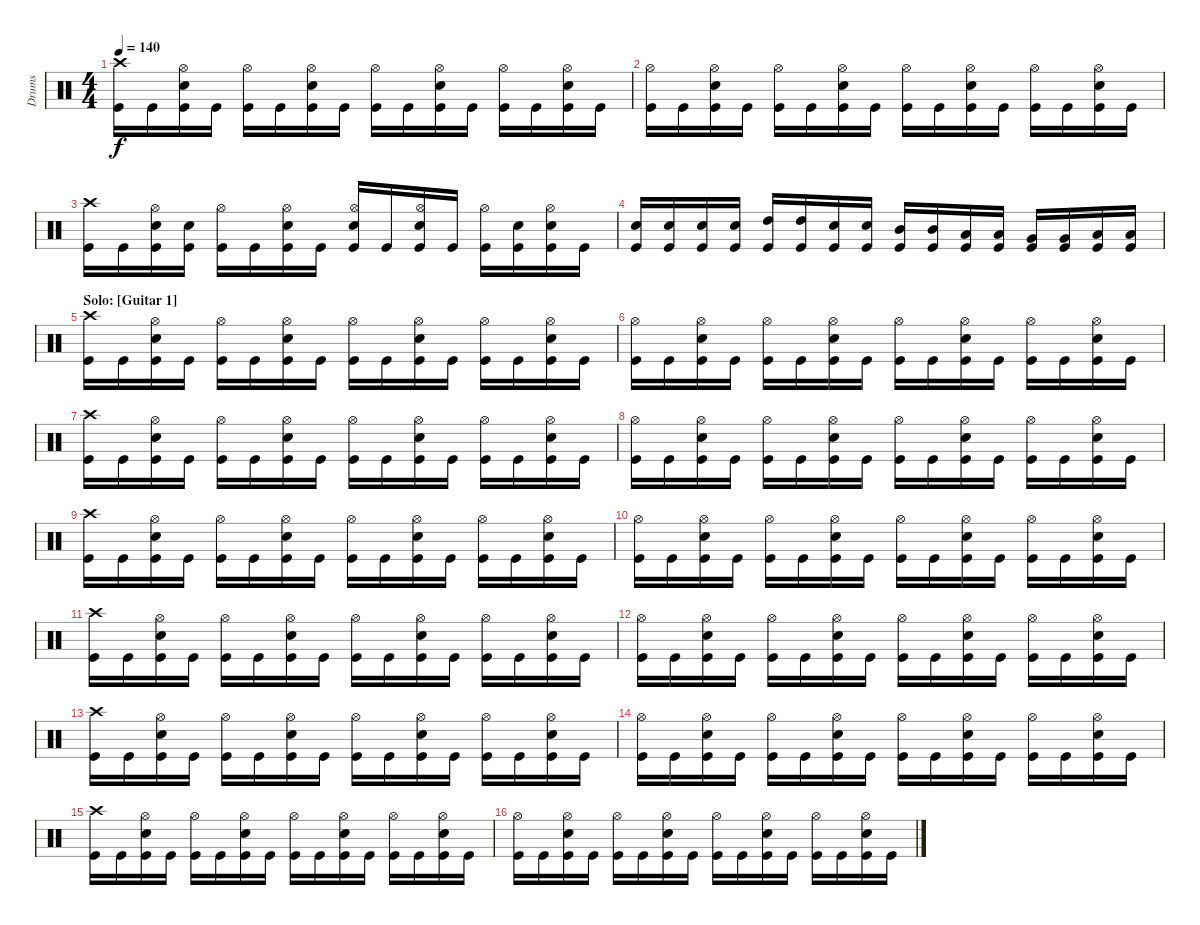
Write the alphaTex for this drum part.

\track ("Drums" "Drums") {instrument percussion}
\staff {score}
\articulation defaults
\ts (4 4)
\tempo 140
\clef neutral
\ks c
("Crash high (hit)" "Kick (hit)").16{dy f} "Kick (hit)".16 ("Hi-Hat (open)" "Electric Snare (hit)" "Kick (hit)").16 "Kick (hit)".16 ("Hi-Hat (open)" "Kick (hit)").16 "Kick (hit)".16 ("Hi-Hat (open)" "Electric Snare (hit)" "Kick (hit)").16 "Kick (hit)".16 ("Hi-Hat (open)" "Kick (hit)").16 "Kick (hit)".16 ("Hi-Hat (open)" "Electric Snare (hit)" "Kick (hit)").16 "Kick (hit)".16 ("Hi-Hat (open)" "Kick (hit)").16 "Kick (hit)".16 ("Hi-Hat (open)" "Electric Snare (hit)" "Kick (hit)").16 "Kick (hit)".16 |
("Hi-Hat (open)" "Kick (hit)").16 "Kick (hit)".16 ("Hi-Hat (open)" "Electric Snare (hit)" "Kick (hit)").16 "Kick (hit)".16 ("Hi-Hat (open)" "Kick (hit)").16 "Kick (hit)".16 ("Hi-Hat (open)" "Electric Snare (hit)" "Kick (hit)").16 "Kick (hit)".16 ("Hi-Hat (open)" "Kick (hit)").16 "Kick (hit)".16 ("Hi-Hat (open)" "Electric Snare (hit)" "Kick (hit)").16 "Kick (hit)".16 ("Hi-Hat (open)" "Kick (hit)").16 "Kick (hit)".16 ("Hi-Hat (open)" "Electric Snare (hit)" "Kick (hit)").16 "Kick (hit)".16 |
("Crash high (hit)" "Kick (hit)").16 "Kick (hit)".16 ("Hi-Hat (open)" "Electric Snare (hit)" "Kick (hit)").16 ("Electric Snare (hit)" "Kick (hit)").16 ("Hi-Hat (open)" "Kick (hit)").16 "Kick (hit)".16 ("Hi-Hat (open)" "Electric Snare (hit)" "Kick (hit)").16 "Kick (hit)".16 ("Hi-Hat (open)" "Electric Snare (hit)" "Kick (hit)").16 "Kick (hit)".16 ("Hi-Hat (open)" "Electric Snare (hit)" "Kick (hit)").16 "Kick (hit)".16 ("Hi-Hat (open)" "Kick (hit)").16 ("Electric Snare (hit)" "Kick (hit)").16 ("Hi-Hat (open)" "Electric Snare (hit)" "Kick (hit)").16 "Kick (hit)".16 |
("Electric Snare (hit)" "Kick (hit)").16 ("Electric Snare (hit)" "Kick (hit)").16 ("Electric Snare (hit)" "Kick (hit)").16 ("Electric Snare (hit)" "Kick (hit)").16 ("High Tom (hit)" "Kick (hit)").16 ("High Tom (hit)" "Kick (hit)").16 ("Electric Snare (hit)" "Kick (hit)").16 ("Electric Snare (hit)" "Kick (hit)").16 ("Mid Tom (hit)" "Kick (hit)").16 ("Mid Tom (hit)" "Kick (hit)").16 ("Low Tom (hit)" "Kick (hit)").16 ("Low Tom (hit)" "Kick (hit)").16 ("Very Low Tom (hit)" "Kick (hit)").16 ("Very Low Tom (hit)" "Kick (hit)").16 ("Low Floor Tom (hit)" "Kick (hit)").16 ("Low Floor Tom (hit)" "Kick (hit)").16 |
\section ("" "Solo: [Guitar 1]")
("Crash high (hit)" "Kick (hit)").16 "Kick (hit)".16 ("Hi-Hat (open)" "Electric Snare (hit)" "Kick (hit)").16 "Kick (hit)".16 ("Hi-Hat (open)" "Kick (hit)").16 "Kick (hit)".16 ("Hi-Hat (open)" "Electric Snare (hit)" "Kick (hit)").16 "Kick (hit)".16 ("Hi-Hat (open)" "Kick (hit)").16 "Kick (hit)".16 ("Hi-Hat (open)" "Electric Snare (hit)" "Kick (hit)").16 "Kick (hit)".16 ("Hi-Hat (open)" "Kick (hit)").16 "Kick (hit)".16 ("Hi-Hat (open)" "Electric Snare (hit)" "Kick (hit)").16 "Kick (hit)".16 |
("Hi-Hat (open)" "Kick (hit)").16 "Kick (hit)".16 ("Hi-Hat (open)" "Electric Snare (hit)" "Kick (hit)").16 "Kick (hit)".16 ("Hi-Hat (open)" "Kick (hit)").16 "Kick (hit)".16 ("Hi-Hat (open)" "Electric Snare (hit)" "Kick (hit)").16 "Kick (hit)".16 ("Hi-Hat (open)" "Kick (hit)").16 "Kick (hit)".16 ("Hi-Hat (open)" "Electric Snare (hit)" "Kick (hit)").16 "Kick (hit)".16 ("Hi-Hat (open)" "Kick (hit)").16 "Kick (hit)".16 ("Hi-Hat (open)" "Electric Snare (hit)" "Kick (hit)").16 "Kick (hit)".16 |
("Crash high (hit)" "Kick (hit)").16 "Kick (hit)".16 ("Hi-Hat (open)" "Electric Snare (hit)" "Kick (hit)").16 "Kick (hit)".16 ("Hi-Hat (open)" "Kick (hit)").16 "Kick (hit)".16 ("Hi-Hat (open)" "Electric Snare (hit)" "Kick (hit)").16 "Kick (hit)".16 ("Hi-Hat (open)" "Kick (hit)").16 "Kick (hit)".16 ("Hi-Hat (open)" "Electric Snare (hit)" "Kick (hit)").16 "Kick (hit)".16 ("Hi-Hat (open)" "Kick (hit)").16 "Kick (hit)".16 ("Hi-Hat (open)" "Electric Snare (hit)" "Kick (hit)").16 "Kick (hit)".16 |
("Hi-Hat (open)" "Kick (hit)").16 "Kick (hit)".16 ("Hi-Hat (open)" "Electric Snare (hit)" "Kick (hit)").16 "Kick (hit)".16 ("Hi-Hat (open)" "Kick (hit)").16 "Kick (hit)".16 ("Hi-Hat (open)" "Electric Snare (hit)" "Kick (hit)").16 "Kick (hit)".16 ("Hi-Hat (open)" "Kick (hit)").16 "Kick (hit)".16 ("Hi-Hat (open)" "Electric Snare (hit)" "Kick (hit)").16 "Kick (hit)".16 ("Hi-Hat (open)" "Kick (hit)").16 "Kick (hit)".16 ("Hi-Hat (open)" "Electric Snare (hit)" "Kick (hit)").16 "Kick (hit)".16 |
("Crash high (hit)" "Kick (hit)").16 "Kick (hit)".16 ("Hi-Hat (open)" "Electric Snare (hit)" "Kick (hit)").16 "Kick (hit)".16 ("Hi-Hat (open)" "Kick (hit)").16 "Kick (hit)".16 ("Hi-Hat (open)" "Electric Snare (hit)" "Kick (hit)").16 "Kick (hit)".16 ("Hi-Hat (open)" "Kick (hit)").16 "Kick (hit)".16 ("Hi-Hat (open)" "Electric Snare (hit)" "Kick (hit)").16 "Kick (hit)".16 ("Hi-Hat (open)" "Kick (hit)").16 "Kick (hit)".16 ("Hi-Hat (open)" "Electric Snare (hit)" "Kick (hit)").16 "Kick (hit)".16 |
("Hi-Hat (open)" "Kick (hit)").16 "Kick (hit)".16 ("Hi-Hat (open)" "Electric Snare (hit)" "Kick (hit)").16 "Kick (hit)".16 ("Hi-Hat (open)" "Kick (hit)").16 "Kick (hit)".16 ("Hi-Hat (open)" "Electric Snare (hit)" "Kick (hit)").16 "Kick (hit)".16 ("Hi-Hat (open)" "Kick (hit)").16 "Kick (hit)".16 ("Hi-Hat (open)" "Electric Snare (hit)" "Kick (hit)").16 "Kick (hit)".16 ("Hi-Hat (open)" "Kick (hit)").16 "Kick (hit)".16 ("Hi-Hat (open)" "Electric Snare (hit)" "Kick (hit)").16 "Kick (hit)".16 |
("Crash high (hit)" "Kick (hit)").16 "Kick (hit)".16 ("Hi-Hat (open)" "Electric Snare (hit)" "Kick (hit)").16 "Kick (hit)".16 ("Hi-Hat (open)" "Kick (hit)").16 "Kick (hit)".16 ("Hi-Hat (open)" "Electric Snare (hit)" "Kick (hit)").16 "Kick (hit)".16 ("Hi-Hat (open)" "Kick (hit)").16 "Kick (hit)".16 ("Hi-Hat (open)" "Electric Snare (hit)" "Kick (hit)").16 "Kick (hit)".16 ("Hi-Hat (open)" "Kick (hit)").16 "Kick (hit)".16 ("Hi-Hat (open)" "Electric Snare (hit)" "Kick (hit)").16 "Kick (hit)".16 |
("Hi-Hat (open)" "Kick (hit)").16 "Kick (hit)".16 ("Hi-Hat (open)" "Electric Snare (hit)" "Kick (hit)").16 "Kick (hit)".16 ("Hi-Hat (open)" "Kick (hit)").16 "Kick (hit)".16 ("Hi-Hat (open)" "Electric Snare (hit)" "Kick (hit)").16 "Kick (hit)".16 ("Hi-Hat (open)" "Kick (hit)").16 "Kick (hit)".16 ("Hi-Hat (open)" "Electric Snare (hit)" "Kick (hit)").16 "Kick (hit)".16 ("Hi-Hat (open)" "Kick (hit)").16 "Kick (hit)".16 ("Hi-Hat (open)" "Electric Snare (hit)" "Kick (hit)").16 "Kick (hit)".16 |
("Crash high (hit)" "Kick (hit)").16 "Kick (hit)".16 ("Hi-Hat (open)" "Electric Snare (hit)" "Kick (hit)").16 "Kick (hit)".16 ("Hi-Hat (open)" "Kick (hit)").16 "Kick (hit)".16 ("Hi-Hat (open)" "Electric Snare (hit)" "Kick (hit)").16 "Kick (hit)".16 ("Hi-Hat (open)" "Kick (hit)").16 "Kick (hit)".16 ("Hi-Hat (open)" "Electric Snare (hit)" "Kick (hit)").16 "Kick (hit)".16 ("Hi-Hat (open)" "Kick (hit)").16 "Kick (hit)".16 ("Hi-Hat (open)" "Electric Snare (hit)" "Kick (hit)").16 "Kick (hit)".16 |
("Hi-Hat (open)" "Kick (hit)").16 "Kick (hit)".16 ("Hi-Hat (open)" "Electric Snare (hit)" "Kick (hit)").16 "Kick (hit)".16 ("Hi-Hat (open)" "Kick (hit)").16 "Kick (hit)".16 ("Hi-Hat (open)" "Electric Snare (hit)" "Kick (hit)").16 "Kick (hit)".16 ("Hi-Hat (open)" "Kick (hit)").16 "Kick (hit)".16 ("Hi-Hat (open)" "Electric Snare (hit)" "Kick (hit)").16 "Kick (hit)".16 ("Hi-Hat (open)" "Kick (hit)").16 "Kick (hit)".16 ("Hi-Hat (open)" "Electric Snare (hit)" "Kick (hit)").16 "Kick (hit)".16 |
("Crash high (hit)" "Kick (hit)").16 "Kick (hit)".16 ("Hi-Hat (open)" "Electric Snare (hit)" "Kick (hit)").16 "Kick (hit)".16 ("Hi-Hat (open)" "Kick (hit)").16 "Kick (hit)".16 ("Hi-Hat (open)" "Electric Snare (hit)" "Kick (hit)").16 "Kick (hit)".16 ("Hi-Hat (open)" "Kick (hit)").16 "Kick (hit)".16 ("Hi-Hat (open)" "Electric Snare (hit)" "Kick (hit)").16 "Kick (hit)".16 ("Hi-Hat (open)" "Kick (hit)").16 "Kick (hit)".16 ("Hi-Hat (open)" "Electric Snare (hit)" "Kick (hit)").16 "Kick (hit)".16 |
("Hi-Hat (open)" "Kick (hit)").16 "Kick (hit)".16 ("Hi-Hat (open)" "Electric Snare (hit)" "Kick (hit)").16 "Kick (hit)".16 ("Hi-Hat (open)" "Kick (hit)").16 "Kick (hit)".16 ("Hi-Hat (open)" "Electric Snare (hit)" "Kick (hit)").16 "Kick (hit)".16 ("Hi-Hat (open)" "Kick (hit)").16 "Kick (hit)".16 ("Hi-Hat (open)" "Electric Snare (hit)" "Kick (hit)").16 "Kick (hit)".16 ("Hi-Hat (open)" "Kick (hit)").16 "Kick (hit)".16 ("Hi-Hat (open)" "Electric Snare (hit)" "Kick (hit)").16 "Kick (hit)".16
